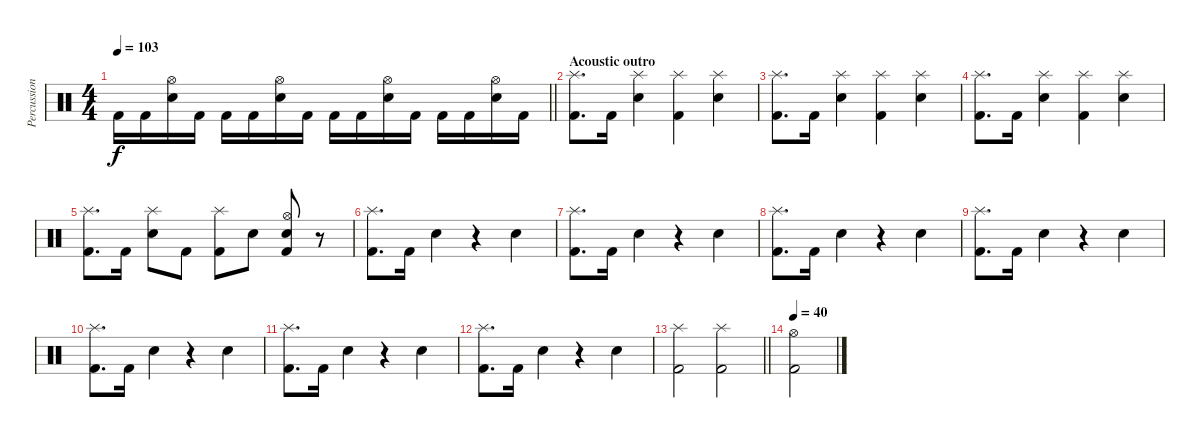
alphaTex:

\track ("Percussion" "Percussion") {instrument percussion}
\staff {score}
\articulation defaults
\ts (4 4)
\tempo 103
\clef neutral
\barLineRight lightlight
\ks aminor "Kick (hit) 2".16{dy f} "Kick (hit) 2".16
("Hi-Hat (open)" "Electric Snare (hit)").16 "Kick (hit) 2".16 "Kick (hit) 2".16 "Kick (hit) 2".16 ("Hi-Hat (open)" "Electric Snare (hit)").16 "Kick (hit) 2".16 "Kick (hit) 2".16 "Kick (hit) 2".16 ("Hi-Hat (open)" "Electric Snare (hit)").16 "Kick (hit) 2".16 "Kick (hit) 2".16 "Kick (hit) 2".16 ("Hi-Hat (open)" "Electric Snare (hit)").16 "Kick (hit) 2".16 |
\section ("" "Acoustic outro")
("Splash (hit)" "Kick (hit) 2").8{d} "Kick (hit) 2".16 ("Splash (hit)" "Electric Snare (hit)").4 ("Splash (hit)" "Kick (hit) 2").4 ("Splash (hit)" "Electric Snare (hit)").4 |
("Splash (hit)" "Kick (hit) 2").8{d} "Kick (hit) 2".16 ("Splash (hit)" "Electric Snare (hit)").4 ("Splash (hit)" "Kick (hit) 2").4 ("Splash (hit)" "Electric Snare (hit)").4 |
("Splash (hit)" "Kick (hit) 2").8{d} "Kick (hit) 2".16 ("Splash (hit)" "Electric Snare (hit)").4 ("Splash (hit)" "Kick (hit) 2").4 ("Splash (hit)" "Electric Snare (hit)").4 |
("Splash (hit)" "Kick (hit) 2").8{d} "Kick (hit) 2".16 ("Splash (hit)" "Electric Snare (hit)").8 "Kick (hit) 2".8 ("Splash (hit)" "Kick (hit) 2").8 "Electric Snare (hit)".8 ("Hi-Hat (open)" "Electric Snare (hit)" "Kick (hit) 2").8 r.8 |
("Splash (hit)" "Kick (hit) 2").8{d} "Kick (hit) 2".16 "Electric Snare (hit)".4 r.4 "Electric Snare (hit)".4 |
("Splash (hit)" "Kick (hit) 2").8{d} "Kick (hit) 2".16 "Electric Snare (hit)".4 r.4 "Electric Snare (hit)".4 |
("Splash (hit)" "Kick (hit) 2").8{d} "Kick (hit) 2".16 "Electric Snare (hit)".4 r.4 "Electric Snare (hit)".4 |
("Splash (hit)" "Kick (hit) 2").8{d} "Kick (hit) 2".16 "Electric Snare (hit)".4 r.4 "Electric Snare (hit)".4 |
("Splash (hit)" "Kick (hit) 2").8{d} "Kick (hit) 2".16 "Electric Snare (hit)".4 r.4 "Electric Snare (hit)".4 |
("Splash (hit)" "Kick (hit) 2").8{d} "Kick (hit) 2".16 "Electric Snare (hit)".4 r.4 "Electric Snare (hit)".4 |
("Splash (hit)" "Kick (hit) 2").8{d} "Kick (hit) 2".16 "Electric Snare (hit)".4 r.4 "Electric Snare (hit)".4 |
\barLineRight lightlight
("Splash (hit)" "Kick (hit) 2").2 ("Splash (hit)" "Kick (hit) 2").2 |
\tempo 40
("Hi-Hat (open)" "Kick (hit) 2").2
